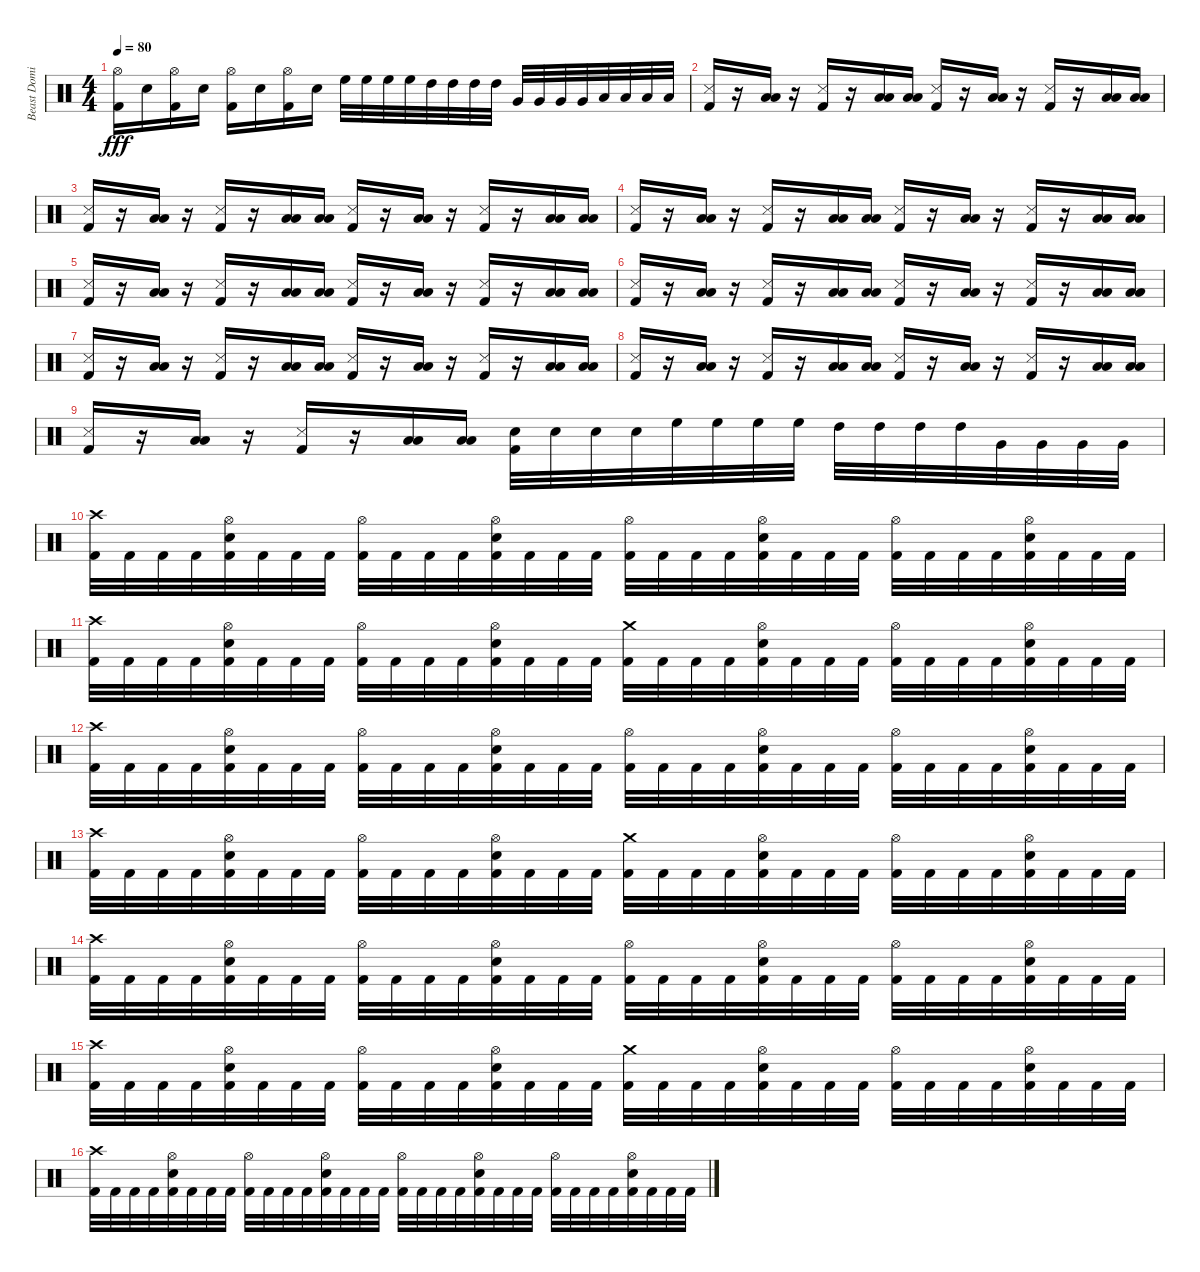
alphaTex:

\track ("Beast Dominator" "Beast Domi") {instrument percussion}
\staff {score}
\articulation defaults
\ts (4 4)
\tempo 80
\clef neutral
\ks c
("Hi-Hat (open)" "Kick (hit) 2").16{dy fff} "Snare (hit) 2".16 ("Hi-Hat (open)" "Kick (hit) 2").16 "Snare (hit) 2".16 ("Hi-Hat (open)" "Kick (hit) 2").16 "Snare (hit) 2".16 ("Hi-Hat (open)" "Kick (hit) 2").16 "Snare (hit) 2".16 "High Floor Tom (hit)".32 "High Floor Tom (hit)".32 "High Floor Tom (hit)".32 "High Floor Tom (hit)".32 "High Tom (hit)".32 "High Tom (hit)".32 "High Tom (hit)".32 "High Tom (hit)".32 "Very Low Tom (hit)".32 "Very Low Tom (hit)".32 "Very Low Tom (hit)".32 "Very Low Tom (hit)".32 "Low Floor Tom (hit)".32 "Low Floor Tom (hit)".32 "Low Floor Tom (hit)".32 "Low Floor Tom (hit)".32 |
("Snare (side stick) 3" "Kick (hit) 2").16 r.16 ("Low Tom (hit)" "Low Floor Tom (hit)").16 r.16 ("Snare (side stick) 3" "Kick (hit) 2").16 r.16 ("Low Tom (hit)" "Low Floor Tom (hit)").16 ("Low Tom (hit)" "Low Floor Tom (hit)").16 ("Snare (side stick) 3" "Kick (hit) 2").16 r.16 ("Low Tom (hit)" "Low Floor Tom (hit)").16 r.16 ("Snare (side stick) 3" "Kick (hit) 2").16 r.16 ("Low Tom (hit)" "Low Floor Tom (hit)").16 ("Low Tom (hit)" "Low Floor Tom (hit)").16 |
("Snare (side stick) 3" "Kick (hit) 2").16 r.16 ("Low Tom (hit)" "Low Floor Tom (hit)").16 r.16 ("Snare (side stick) 3" "Kick (hit) 2").16 r.16 ("Low Tom (hit)" "Low Floor Tom (hit)").16 ("Low Tom (hit)" "Low Floor Tom (hit)").16 ("Snare (side stick) 3" "Kick (hit) 2").16 r.16 ("Low Tom (hit)" "Low Floor Tom (hit)").16 r.16 ("Snare (side stick) 3" "Kick (hit) 2").16 r.16 ("Low Tom (hit)" "Low Floor Tom (hit)").16 ("Low Tom (hit)" "Low Floor Tom (hit)").16 |
("Snare (side stick) 3" "Kick (hit) 2").16 r.16 ("Low Tom (hit)" "Low Floor Tom (hit)").16 r.16 ("Snare (side stick) 3" "Kick (hit) 2").16 r.16 ("Low Tom (hit)" "Low Floor Tom (hit)").16 ("Low Tom (hit)" "Low Floor Tom (hit)").16 ("Snare (side stick) 3" "Kick (hit) 2").16 r.16 ("Low Tom (hit)" "Low Floor Tom (hit)").16 r.16 ("Snare (side stick) 3" "Kick (hit) 2").16 r.16 ("Low Tom (hit)" "Low Floor Tom (hit)").16 ("Low Tom (hit)" "Low Floor Tom (hit)").16 |
("Snare (side stick) 3" "Kick (hit) 2").16 r.16 ("Low Tom (hit)" "Low Floor Tom (hit)").16 r.16 ("Snare (side stick) 3" "Kick (hit) 2").16 r.16 ("Low Tom (hit)" "Low Floor Tom (hit)").16 ("Low Tom (hit)" "Low Floor Tom (hit)").16 ("Snare (side stick) 3" "Kick (hit) 2").16 r.16 ("Low Tom (hit)" "Low Floor Tom (hit)").16 r.16 ("Snare (side stick) 3" "Kick (hit) 2").16 r.16 ("Low Tom (hit)" "Low Floor Tom (hit)").16 ("Low Tom (hit)" "Low Floor Tom (hit)").16 |
("Snare (side stick) 3" "Kick (hit) 2").16 r.16 ("Low Tom (hit)" "Low Floor Tom (hit)").16 r.16 ("Snare (side stick) 3" "Kick (hit) 2").16 r.16 ("Low Tom (hit)" "Low Floor Tom (hit)").16 ("Low Tom (hit)" "Low Floor Tom (hit)").16 ("Snare (side stick) 3" "Kick (hit) 2").16 r.16 ("Low Tom (hit)" "Low Floor Tom (hit)").16 r.16 ("Snare (side stick) 3" "Kick (hit) 2").16 r.16 ("Low Tom (hit)" "Low Floor Tom (hit)").16 ("Low Tom (hit)" "Low Floor Tom (hit)").16 |
("Snare (side stick) 3" "Kick (hit) 2").16 r.16 ("Low Tom (hit)" "Low Floor Tom (hit)").16 r.16 ("Snare (side stick) 3" "Kick (hit) 2").16 r.16 ("Low Tom (hit)" "Low Floor Tom (hit)").16 ("Low Tom (hit)" "Low Floor Tom (hit)").16 ("Snare (side stick) 3" "Kick (hit) 2").16 r.16 ("Low Tom (hit)" "Low Floor Tom (hit)").16 r.16 ("Snare (side stick) 3" "Kick (hit) 2").16 r.16 ("Low Tom (hit)" "Low Floor Tom (hit)").16 ("Low Tom (hit)" "Low Floor Tom (hit)").16 |
("Snare (side stick) 3" "Kick (hit) 2").16 r.16 ("Low Tom (hit)" "Low Floor Tom (hit)").16 r.16 ("Snare (side stick) 3" "Kick (hit) 2").16 r.16 ("Low Tom (hit)" "Low Floor Tom (hit)").16 ("Low Tom (hit)" "Low Floor Tom (hit)").16 ("Snare (side stick) 3" "Kick (hit) 2").16 r.16 ("Low Tom (hit)" "Low Floor Tom (hit)").16 r.16 ("Snare (side stick) 3" "Kick (hit) 2").16 r.16 ("Low Tom (hit)" "Low Floor Tom (hit)").16 ("Low Tom (hit)" "Low Floor Tom (hit)").16 |
("Snare (side stick) 3" "Kick (hit) 2").16 r.16 ("Low Tom (hit)" "Low Floor Tom (hit)").16 r.16 ("Snare (side stick) 3" "Kick (hit) 2").16 r.16 ("Low Tom (hit)" "Low Floor Tom (hit)").16 ("Low Tom (hit)" "Low Floor Tom (hit)").16 ("Snare (hit) 2" "Kick (hit) 2").32 "Snare (hit) 2".32 "Snare (hit) 2".32 "Snare (hit) 2".32 "High Floor Tom (hit)".32 "High Floor Tom (hit)".32 "High Floor Tom (hit)".32 "High Floor Tom (hit)".32 "High Tom (hit)".32 "High Tom (hit)".32 "High Tom (hit)".32 "High Tom (hit)".32 "Very Low Tom (hit)".32 "Very Low Tom (hit)".32 "Very Low Tom (hit)".32 "Very Low Tom (hit)".32 |
("Crash high (hit)" "Kick (hit) 2").32 "Kick (hit) 2".32 "Kick (hit) 2".32 "Kick (hit) 2".32 ("Hi-Hat (open)" "Snare (hit) 2" "Kick (hit) 2").32 "Kick (hit) 2".32 "Kick (hit) 2".32 "Kick (hit) 2".32 ("Hi-Hat (open)" "Kick (hit) 2").32 "Kick (hit) 2".32 "Kick (hit) 2".32 "Kick (hit) 2".32 ("Hi-Hat (open)" "Snare (hit) 2" "Kick (hit) 2").32 "Kick (hit) 2".32 "Kick (hit) 2".32 "Kick (hit) 2".32 ("Hi-Hat (open)" "Kick (hit) 2").32 "Kick (hit) 2".32 "Kick (hit) 2".32 "Kick (hit) 2".32 ("Hi-Hat (open)" "Snare (hit) 2" "Kick (hit) 2").32 "Kick (hit) 2".32 "Kick (hit) 2".32 "Kick (hit) 2".32 ("Hi-Hat (open)" "Kick (hit) 2").32 "Kick (hit) 2".32 "Kick (hit) 2".32 "Kick (hit) 2".32 ("Hi-Hat (open)" "Snare (hit) 2" "Kick (hit) 2").32 "Kick (hit) 2".32 "Kick (hit) 2".32 "Kick (hit) 2".32 |
("Crash high (hit)" "Kick (hit) 2").32 "Kick (hit) 2".32 "Kick (hit) 2".32 "Kick (hit) 2".32 ("Hi-Hat (open)" "Snare (hit) 2" "Kick (hit) 2").32 "Kick (hit) 2".32 "Kick (hit) 2".32 "Kick (hit) 2".32 ("Hi-Hat (open)" "Kick (hit) 2").32 "Kick (hit) 2".32 "Kick (hit) 2".32 "Kick (hit) 2".32 ("Hi-Hat (open)" "Snare (hit) 2" "Kick (hit) 2").32 "Kick (hit) 2".32 "Kick (hit) 2".32 "Kick (hit) 2".32 ("Crash medium (hit)" "Kick (hit) 2").32 "Kick (hit) 2".32 "Kick (hit) 2".32 "Kick (hit) 2".32 ("Hi-Hat (open)" "Snare (hit) 2" "Kick (hit) 2").32 "Kick (hit) 2".32 "Kick (hit) 2".32 "Kick (hit) 2".32 ("Hi-Hat (open)" "Kick (hit) 2").32 "Kick (hit) 2".32 "Kick (hit) 2".32 "Kick (hit) 2".32 ("Hi-Hat (open)" "Snare (hit) 2" "Kick (hit) 2").32 "Kick (hit) 2".32 "Kick (hit) 2".32 "Kick (hit) 2".32 |
("Crash high (hit)" "Kick (hit) 2").32 "Kick (hit) 2".32 "Kick (hit) 2".32 "Kick (hit) 2".32 ("Hi-Hat (open)" "Snare (hit) 2" "Kick (hit) 2").32 "Kick (hit) 2".32 "Kick (hit) 2".32 "Kick (hit) 2".32 ("Hi-Hat (open)" "Kick (hit) 2").32 "Kick (hit) 2".32 "Kick (hit) 2".32 "Kick (hit) 2".32 ("Hi-Hat (open)" "Snare (hit) 2" "Kick (hit) 2").32 "Kick (hit) 2".32 "Kick (hit) 2".32 "Kick (hit) 2".32 ("Hi-Hat (open)" "Kick (hit) 2").32 "Kick (hit) 2".32 "Kick (hit) 2".32 "Kick (hit) 2".32 ("Hi-Hat (open)" "Snare (hit) 2" "Kick (hit) 2").32 "Kick (hit) 2".32 "Kick (hit) 2".32 "Kick (hit) 2".32 ("Hi-Hat (open)" "Kick (hit) 2").32 "Kick (hit) 2".32 "Kick (hit) 2".32 "Kick (hit) 2".32 ("Hi-Hat (open)" "Snare (hit) 2" "Kick (hit) 2").32 "Kick (hit) 2".32 "Kick (hit) 2".32 "Kick (hit) 2".32 |
("Crash high (hit)" "Kick (hit) 2").32 "Kick (hit) 2".32 "Kick (hit) 2".32 "Kick (hit) 2".32 ("Hi-Hat (open)" "Snare (hit) 2" "Kick (hit) 2").32 "Kick (hit) 2".32 "Kick (hit) 2".32 "Kick (hit) 2".32 ("Hi-Hat (open)" "Kick (hit) 2").32 "Kick (hit) 2".32 "Kick (hit) 2".32 "Kick (hit) 2".32 ("Hi-Hat (open)" "Snare (hit) 2" "Kick (hit) 2").32 "Kick (hit) 2".32 "Kick (hit) 2".32 "Kick (hit) 2".32 ("Crash medium (hit)" "Kick (hit) 2").32 "Kick (hit) 2".32 "Kick (hit) 2".32 "Kick (hit) 2".32 ("Hi-Hat (open)" "Snare (hit) 2" "Kick (hit) 2").32 "Kick (hit) 2".32 "Kick (hit) 2".32 "Kick (hit) 2".32 ("Hi-Hat (open)" "Kick (hit) 2").32 "Kick (hit) 2".32 "Kick (hit) 2".32 "Kick (hit) 2".32 ("Hi-Hat (open)" "Snare (hit) 2" "Kick (hit) 2").32 "Kick (hit) 2".32 "Kick (hit) 2".32 "Kick (hit) 2".32 |
("Crash high (hit)" "Kick (hit) 2").32 "Kick (hit) 2".32 "Kick (hit) 2".32 "Kick (hit) 2".32 ("Hi-Hat (open)" "Snare (hit) 2" "Kick (hit) 2").32 "Kick (hit) 2".32 "Kick (hit) 2".32 "Kick (hit) 2".32 ("Hi-Hat (open)" "Kick (hit) 2").32 "Kick (hit) 2".32 "Kick (hit) 2".32 "Kick (hit) 2".32 ("Hi-Hat (open)" "Snare (hit) 2" "Kick (hit) 2").32 "Kick (hit) 2".32 "Kick (hit) 2".32 "Kick (hit) 2".32 ("Hi-Hat (open)" "Kick (hit) 2").32 "Kick (hit) 2".32 "Kick (hit) 2".32 "Kick (hit) 2".32 ("Hi-Hat (open)" "Snare (hit) 2" "Kick (hit) 2").32 "Kick (hit) 2".32 "Kick (hit) 2".32 "Kick (hit) 2".32 ("Hi-Hat (open)" "Kick (hit) 2").32 "Kick (hit) 2".32 "Kick (hit) 2".32 "Kick (hit) 2".32 ("Hi-Hat (open)" "Snare (hit) 2" "Kick (hit) 2").32 "Kick (hit) 2".32 "Kick (hit) 2".32 "Kick (hit) 2".32 |
("Crash high (hit)" "Kick (hit) 2").32 "Kick (hit) 2".32 "Kick (hit) 2".32 "Kick (hit) 2".32 ("Hi-Hat (open)" "Snare (hit) 2" "Kick (hit) 2").32 "Kick (hit) 2".32 "Kick (hit) 2".32 "Kick (hit) 2".32 ("Hi-Hat (open)" "Kick (hit) 2").32 "Kick (hit) 2".32 "Kick (hit) 2".32 "Kick (hit) 2".32 ("Hi-Hat (open)" "Snare (hit) 2" "Kick (hit) 2").32 "Kick (hit) 2".32 "Kick (hit) 2".32 "Kick (hit) 2".32 ("Crash medium (hit)" "Kick (hit) 2").32 "Kick (hit) 2".32 "Kick (hit) 2".32 "Kick (hit) 2".32 ("Hi-Hat (open)" "Snare (hit) 2" "Kick (hit) 2").32 "Kick (hit) 2".32 "Kick (hit) 2".32 "Kick (hit) 2".32 ("Hi-Hat (open)" "Kick (hit) 2").32 "Kick (hit) 2".32 "Kick (hit) 2".32 "Kick (hit) 2".32 ("Hi-Hat (open)" "Snare (hit) 2" "Kick (hit) 2").32 "Kick (hit) 2".32 "Kick (hit) 2".32 "Kick (hit) 2".32 |
("Crash high (hit)" "Kick (hit) 2").32 "Kick (hit) 2".32 "Kick (hit) 2".32 "Kick (hit) 2".32 ("Hi-Hat (open)" "Snare (hit) 2" "Kick (hit) 2").32 "Kick (hit) 2".32 "Kick (hit) 2".32 "Kick (hit) 2".32 ("Hi-Hat (open)" "Kick (hit) 2").32 "Kick (hit) 2".32 "Kick (hit) 2".32 "Kick (hit) 2".32 ("Hi-Hat (open)" "Snare (hit) 2" "Kick (hit) 2").32 "Kick (hit) 2".32 "Kick (hit) 2".32 "Kick (hit) 2".32 ("Hi-Hat (open)" "Kick (hit) 2").32 "Kick (hit) 2".32 "Kick (hit) 2".32 "Kick (hit) 2".32 ("Hi-Hat (open)" "Snare (hit) 2" "Kick (hit) 2").32 "Kick (hit) 2".32 "Kick (hit) 2".32 "Kick (hit) 2".32 ("Hi-Hat (open)" "Kick (hit) 2").32 "Kick (hit) 2".32 "Kick (hit) 2".32 "Kick (hit) 2".32 ("Hi-Hat (open)" "Snare (hit) 2" "Kick (hit) 2").32 "Kick (hit) 2".32 "Kick (hit) 2".32 "Kick (hit) 2".32
